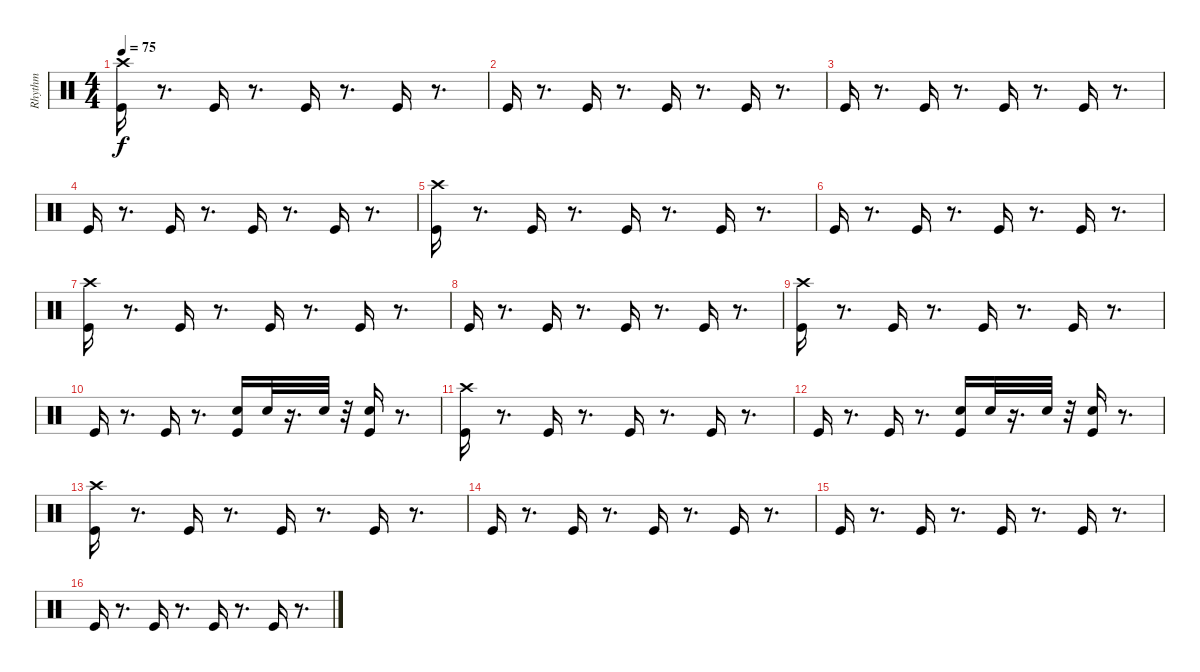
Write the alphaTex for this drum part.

\track ("Rhythm         " "Rhythm    ") {instrument percussion}
\staff {score}
\articulation defaults
\ts (4 4)
\tempo 75
\clef neutral
\ks c
("Crash high (hit)" "Kick (hit)").16{dy f} r.8{d} "Kick (hit)".16 r.8{d} "Kick (hit)".16 r.8{d} "Kick (hit)".16 r.8{d} |
"Kick (hit)".16 r.8{d} "Kick (hit)".16 r.8{d} "Kick (hit)".16 r.8{d} "Kick (hit)".16 r.8{d} |
"Kick (hit)".16 r.8{d} "Kick (hit)".16 r.8{d} "Kick (hit)".16 r.8{d} "Kick (hit)".16 r.8{d} |
"Kick (hit)".16 r.8{d} "Kick (hit)".16 r.8{d} "Kick (hit)".16 r.8{d} "Kick (hit)".16 r.8{d} |
("Crash high (hit)" "Kick (hit)").16 r.8{d} "Kick (hit)".16 r.8{d} "Kick (hit)".16 r.8{d} "Kick (hit)".16 r.8{d} |
"Kick (hit)".16 r.8{d} "Kick (hit)".16 r.8{d} "Kick (hit)".16 r.8{d} "Kick (hit)".16 r.8{d} |
("Crash high (hit)" "Kick (hit)").16 r.8{d} "Kick (hit)".16 r.8{d} "Kick (hit)".16 r.8{d} "Kick (hit)".16 r.8{d} |
"Kick (hit)".16 r.8{d} "Kick (hit)".16 r.8{d} "Kick (hit)".16 r.8{d} "Kick (hit)".16 r.8{d} |
("Crash high (hit)" "Kick (hit)").16 r.8{d} "Kick (hit)".16 r.8{d} "Kick (hit)".16 r.8{d} "Kick (hit)".16 r.8{d} |
"Kick (hit)".16 r.8{d} "Kick (hit)".16 r.8{d} ("Snare (hit) 2" "Kick (hit)").16 "Snare (hit) 2".32 r.16{d} "Snare (hit) 2".32 r.32 ("Snare (hit) 2" "Kick (hit)").16 r.8{d} |
("Crash high (hit)" "Kick (hit)").16 r.8{d} "Kick (hit)".16 r.8{d} "Kick (hit)".16 r.8{d} "Kick (hit)".16 r.8{d} |
"Kick (hit)".16 r.8{d} "Kick (hit)".16 r.8{d} ("Snare (hit) 2" "Kick (hit)").16 "Snare (hit) 2".32 r.16{d} "Snare (hit) 2".32 r.32 ("Snare (hit) 2" "Kick (hit)").16 r.8{d} |
("Crash high (hit)" "Kick (hit)").16 r.8{d} "Kick (hit)".16 r.8{d} "Kick (hit)".16 r.8{d} "Kick (hit)".16 r.8{d} |
"Kick (hit)".16 r.8{d} "Kick (hit)".16 r.8{d} "Kick (hit)".16 r.8{d} "Kick (hit)".16 r.8{d} |
"Kick (hit)".16 r.8{d} "Kick (hit)".16 r.8{d} "Kick (hit)".16 r.8{d} "Kick (hit)".16 r.8{d} |
"Kick (hit)".16 r.8{d} "Kick (hit)".16 r.8{d} "Kick (hit)".16 r.8{d} "Kick (hit)".16 r.8{d}
